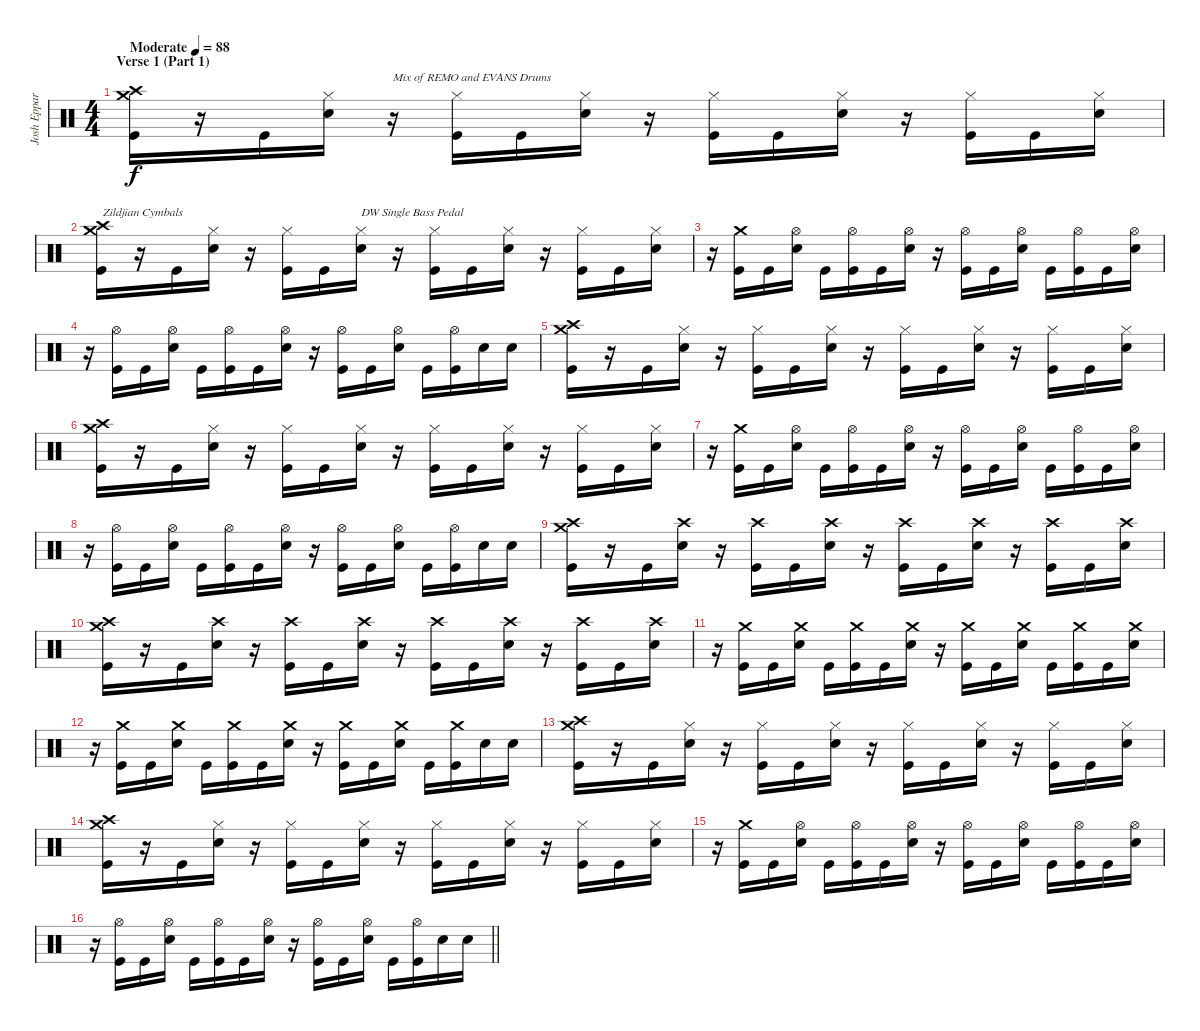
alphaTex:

\track ("Josh Eppard (Drums)" "Josh Eppar") {instrument percussion}
\staff {score}
\articulation defaults
\ts (4 4)
\section ("" "Verse 1 (Part 1)")
\tempo (88 "Moderate")
\clef neutral
\ks c
("Crash high (hit)" "Crash medium (hit)" "Kick (hit)").16{dy f} r.16 "Kick (hit)".16 ("Hi-Hat (closed)" "Electric Snare (hit)").16 r.16{txt "Mix of REMO and EVANS Drums"} ("Hi-Hat (closed)" "Kick (hit)").16 "Kick (hit)".16 ("Hi-Hat (closed)" "Electric Snare (hit)").16 r.16 ("Hi-Hat (closed)" "Kick (hit)").16 "Kick (hit)".16 ("Hi-Hat (closed)" "Electric Snare (hit)").16 r.16 ("Hi-Hat (closed)" "Kick (hit)").16 "Kick (hit)".16 ("Hi-Hat (closed)" "Electric Snare (hit)").16 |
("Crash high (hit)" "Crash medium (hit)" "Kick (hit)").16{txt "Zildjian Cymbals"} r.16 "Kick (hit)".16 ("Hi-Hat (closed)" "Electric Snare (hit)").16 r.16 ("Hi-Hat (closed)" "Kick (hit)").16 "Kick (hit)".16 ("Hi-Hat (closed)" "Electric Snare (hit)").16{txt "DW Single Bass Pedal"} r.16 ("Hi-Hat (closed)" "Kick (hit)").16 "Kick (hit)".16 ("Hi-Hat (closed)" "Electric Snare (hit)").16 r.16 ("Hi-Hat (closed)" "Kick (hit)").16 "Kick (hit)".16 ("Hi-Hat (closed)" "Electric Snare (hit)").16 |
r.16 ("Crash medium (hit)" "Kick (hit)").16 "Kick (hit)".16 ("Hi-Hat (open)" "Electric Snare (hit)").16 "Kick (hit)".16 ("Hi-Hat (open)" "Kick (hit)").16 "Kick (hit)".16 ("Hi-Hat (open)" "Electric Snare (hit)").16 r.16 ("Hi-Hat (open)" "Kick (hit)").16 "Kick (hit)".16 ("Hi-Hat (open)" "Electric Snare (hit)").16 "Kick (hit)".16 ("Hi-Hat (open)" "Kick (hit)").16 "Kick (hit)".16 ("Hi-Hat (open)" "Electric Snare (hit)").16 |
r.16 ("Hi-Hat (open)" "Kick (hit)").16 "Kick (hit)".16 ("Hi-Hat (open)" "Electric Snare (hit)").16 "Kick (hit)".16 ("Hi-Hat (open)" "Kick (hit)").16 "Kick (hit)".16 ("Hi-Hat (open)" "Electric Snare (hit)").16 r.16 ("Hi-Hat (open)" "Kick (hit)").16 "Kick (hit)".16 ("Hi-Hat (open)" "Electric Snare (hit)").16 "Kick (hit)".16 ("Hi-Hat (open)" "Kick (hit)").16 "Electric Snare (hit)".16 "Electric Snare (hit)".16 |
("Crash high (hit)" "Crash medium (hit)" "Kick (hit)").16 r.16 "Kick (hit)".16 ("Hi-Hat (closed)" "Electric Snare (hit)").16 r.16 ("Hi-Hat (closed)" "Kick (hit)").16 "Kick (hit)".16 ("Hi-Hat (closed)" "Electric Snare (hit)").16 r.16 ("Hi-Hat (closed)" "Kick (hit)").16 "Kick (hit)".16 ("Hi-Hat (closed)" "Electric Snare (hit)").16 r.16 ("Hi-Hat (closed)" "Kick (hit)").16 "Kick (hit)".16 ("Hi-Hat (closed)" "Electric Snare (hit)").16 |
("Crash high (hit)" "Crash medium (hit)" "Kick (hit)").16 r.16 "Kick (hit)".16 ("Hi-Hat (closed)" "Electric Snare (hit)").16 r.16 ("Hi-Hat (closed)" "Kick (hit)").16 "Kick (hit)".16 ("Hi-Hat (closed)" "Electric Snare (hit)").16 r.16 ("Hi-Hat (closed)" "Kick (hit)").16 "Kick (hit)".16 ("Hi-Hat (closed)" "Electric Snare (hit)").16 r.16 ("Hi-Hat (closed)" "Kick (hit)").16 "Kick (hit)".16 ("Hi-Hat (closed)" "Electric Snare (hit)").16 |
r.16 ("Crash medium (hit)" "Kick (hit)").16 "Kick (hit)".16 ("Hi-Hat (open)" "Electric Snare (hit)").16 "Kick (hit)".16 ("Hi-Hat (open)" "Kick (hit)").16 "Kick (hit)".16 ("Hi-Hat (open)" "Electric Snare (hit)").16 r.16 ("Hi-Hat (open)" "Kick (hit)").16 "Kick (hit)".16 ("Hi-Hat (open)" "Electric Snare (hit)").16 "Kick (hit)".16 ("Hi-Hat (open)" "Kick (hit)").16 "Kick (hit)".16 ("Hi-Hat (open)" "Electric Snare (hit)").16 |
r.16 ("Hi-Hat (open)" "Kick (hit)").16 "Kick (hit)".16 ("Hi-Hat (open)" "Electric Snare (hit)").16 "Kick (hit)".16 ("Hi-Hat (open)" "Kick (hit)").16 "Kick (hit)".16 ("Hi-Hat (open)" "Electric Snare (hit)").16 r.16 ("Hi-Hat (open)" "Kick (hit)").16 "Kick (hit)".16 ("Hi-Hat (open)" "Electric Snare (hit)").16 "Kick (hit)".16 ("Hi-Hat (open)" "Kick (hit)").16 "Electric Snare (hit)".16 "Electric Snare (hit)".16 |
("Crash high (hit)" "Crash medium (hit)" "Kick (hit)").16 r.16 "Kick (hit)".16 ("Crash high (hit)" "Electric Snare (hit)").16 r.16 ("Crash high (hit)" "Kick (hit)").16 "Kick (hit)".16 ("Crash high (hit)" "Electric Snare (hit)").16 r.16 ("Crash high (hit)" "Kick (hit)").16 "Kick (hit)".16 ("Crash high (hit)" "Electric Snare (hit)").16 r.16 ("Crash high (hit)" "Kick (hit)").16 "Kick (hit)".16 ("Crash high (hit)" "Electric Snare (hit)").16 |
("Crash high (hit)" "Crash medium (hit)" "Kick (hit)").16 r.16 "Kick (hit)".16 ("Crash high (hit)" "Electric Snare (hit)").16 r.16 ("Crash high (hit)" "Kick (hit)").16 "Kick (hit)".16 ("Crash high (hit)" "Electric Snare (hit)").16 r.16 ("Crash high (hit)" "Kick (hit)").16 "Kick (hit)".16 ("Crash high (hit)" "Electric Snare (hit)").16 r.16 ("Crash high (hit)" "Kick (hit)").16 "Kick (hit)".16 ("Crash high (hit)" "Electric Snare (hit)").16 |
r.16 ("Crash medium (hit)" "Kick (hit)").16 "Kick (hit)".16 ("Crash medium (hit)" "Electric Snare (hit)").16 "Kick (hit)".16 ("Crash medium (hit)" "Kick (hit)").16 "Kick (hit)".16 ("Crash medium (hit)" "Electric Snare (hit)").16 r.16 ("Crash medium (hit)" "Kick (hit)").16 "Kick (hit)".16 ("Crash medium (hit)" "Electric Snare (hit)").16 "Kick (hit)".16 ("Crash medium (hit)" "Kick (hit)").16 "Kick (hit)".16 ("Crash medium (hit)" "Electric Snare (hit)").16 |
r.16 ("Crash medium (hit)" "Kick (hit)").16 "Kick (hit)".16 ("Crash medium (hit)" "Electric Snare (hit)").16 "Kick (hit)".16 ("Crash medium (hit)" "Kick (hit)").16 "Kick (hit)".16 ("Crash medium (hit)" "Electric Snare (hit)").16 r.16 ("Crash medium (hit)" "Kick (hit)").16 "Kick (hit)".16 ("Crash medium (hit)" "Electric Snare (hit)").16 "Kick (hit)".16 ("Crash medium (hit)" "Kick (hit)").16 "Electric Snare (hit)".16 "Electric Snare (hit)".16 |
("Crash high (hit)" "Crash medium (hit)" "Kick (hit)").16 r.16 "Kick (hit)".16 ("Hi-Hat (closed)" "Electric Snare (hit)").16 r.16 ("Hi-Hat (closed)" "Kick (hit)").16 "Kick (hit)".16 ("Hi-Hat (closed)" "Electric Snare (hit)").16 r.16 ("Hi-Hat (closed)" "Kick (hit)").16 "Kick (hit)".16 ("Hi-Hat (closed)" "Electric Snare (hit)").16 r.16 ("Hi-Hat (closed)" "Kick (hit)").16 "Kick (hit)".16 ("Hi-Hat (closed)" "Electric Snare (hit)").16 |
("Crash high (hit)" "Crash medium (hit)" "Kick (hit)").16 r.16 "Kick (hit)".16 ("Hi-Hat (closed)" "Electric Snare (hit)").16 r.16 ("Hi-Hat (closed)" "Kick (hit)").16 "Kick (hit)".16 ("Hi-Hat (closed)" "Electric Snare (hit)").16 r.16 ("Hi-Hat (closed)" "Kick (hit)").16 "Kick (hit)".16 ("Hi-Hat (closed)" "Electric Snare (hit)").16 r.16 ("Hi-Hat (closed)" "Kick (hit)").16 "Kick (hit)".16 ("Hi-Hat (closed)" "Electric Snare (hit)").16 |
r.16 ("Crash medium (hit)" "Kick (hit)").16 "Kick (hit)".16 ("Hi-Hat (open)" "Electric Snare (hit)").16 "Kick (hit)".16 ("Hi-Hat (open)" "Kick (hit)").16 "Kick (hit)".16 ("Hi-Hat (open)" "Electric Snare (hit)").16 r.16 ("Hi-Hat (open)" "Kick (hit)").16 "Kick (hit)".16 ("Hi-Hat (open)" "Electric Snare (hit)").16 "Kick (hit)".16 ("Hi-Hat (open)" "Kick (hit)").16 "Kick (hit)".16 ("Hi-Hat (open)" "Electric Snare (hit)").16 |
\barLineRight lightlight
r.16 ("Hi-Hat (open)" "Kick (hit)").16 "Kick (hit)".16 ("Hi-Hat (open)" "Electric Snare (hit)").16 "Kick (hit)".16 ("Hi-Hat (open)" "Kick (hit)").16 "Kick (hit)".16 ("Hi-Hat (open)" "Electric Snare (hit)").16 r.16 ("Hi-Hat (open)" "Kick (hit)").16 "Kick (hit)".16 ("Hi-Hat (open)" "Electric Snare (hit)").16 "Kick (hit)".16 ("Hi-Hat (open)" "Kick (hit)").16 "Electric Snare (hit)".16 "Electric Snare (hit)".16
